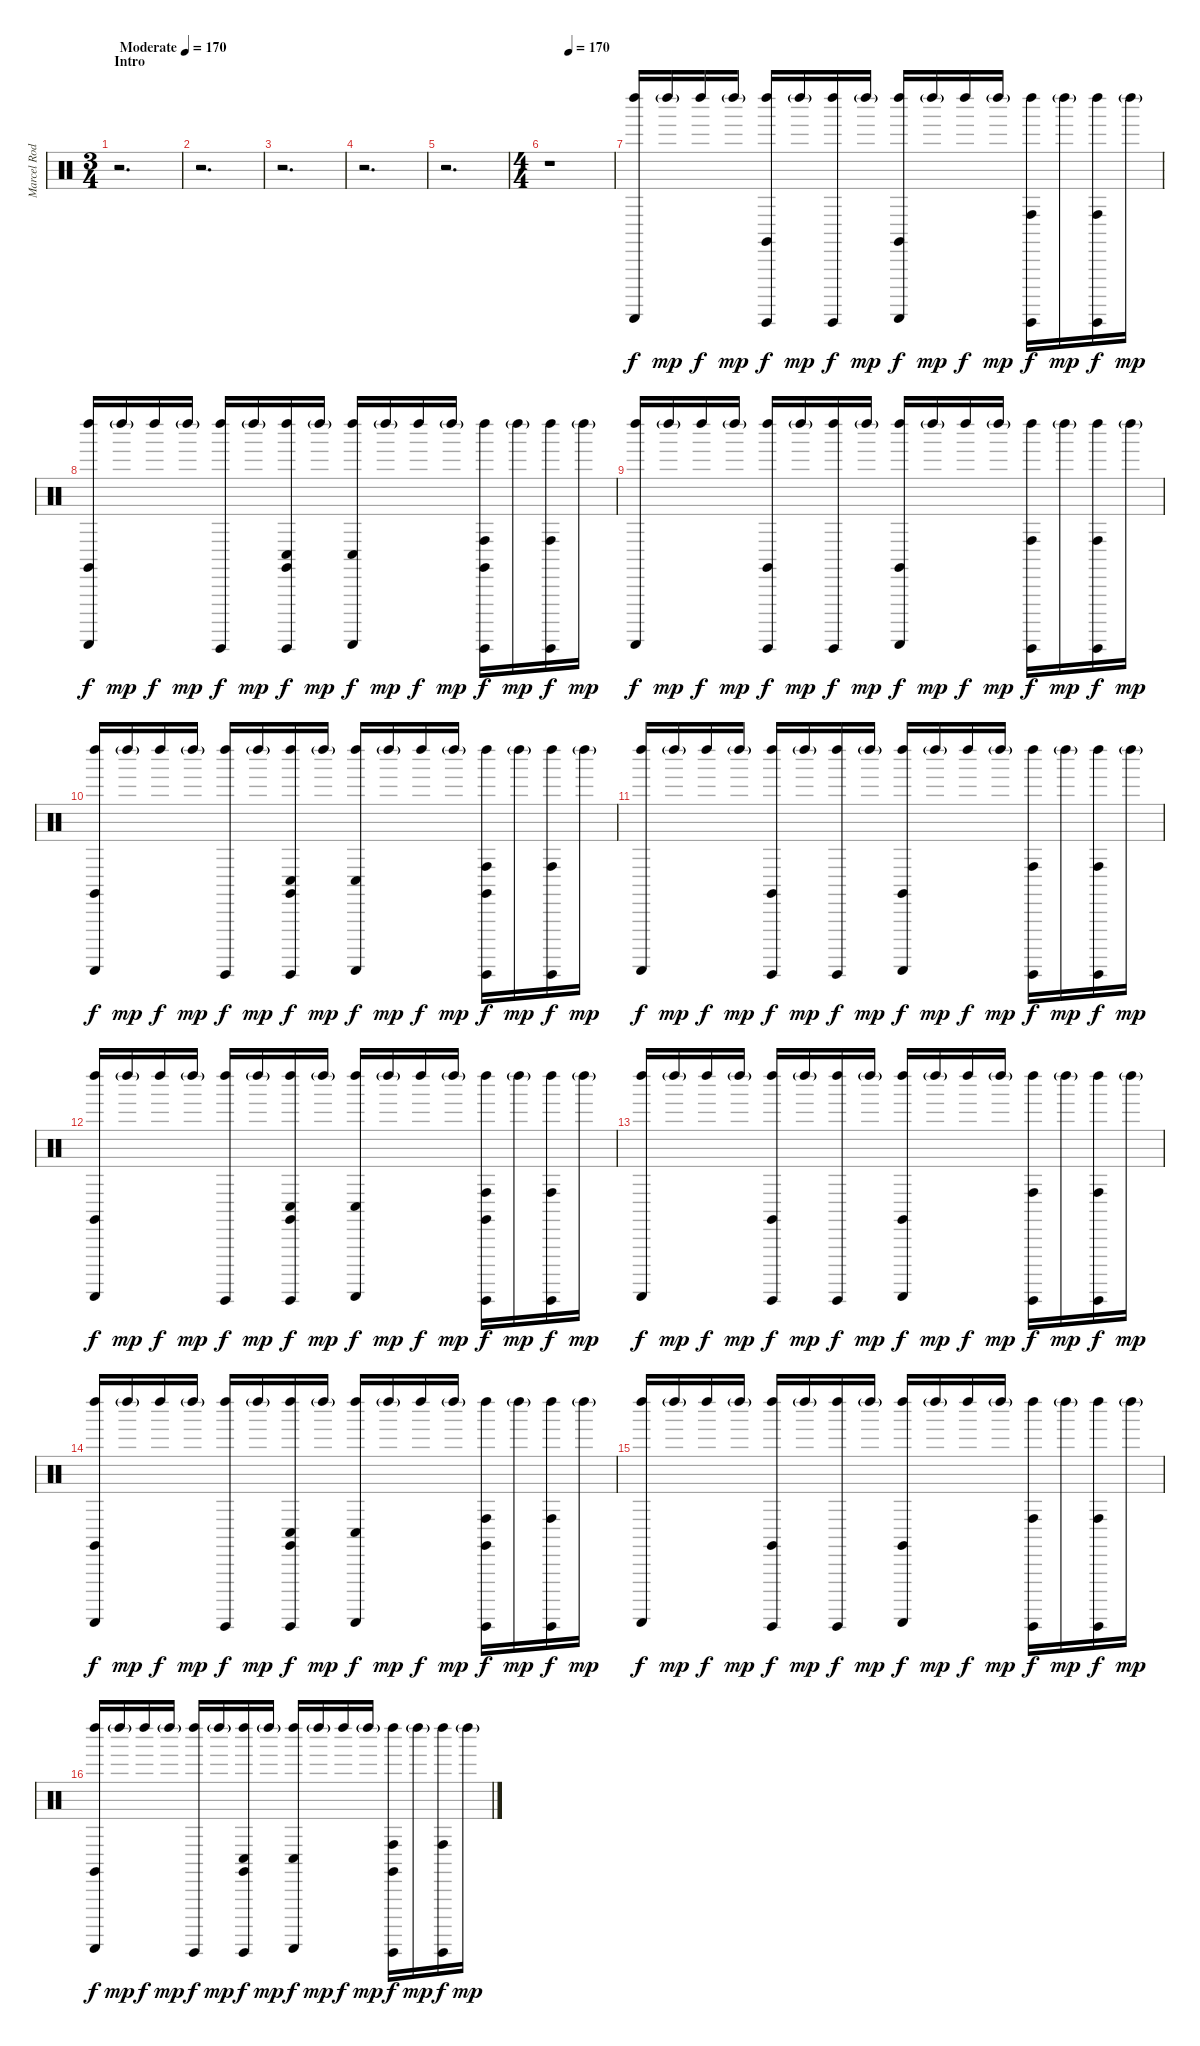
\track ("Marcel Rodriguez-Lopez/Adrian Terrazas [" "Marcel Rod") {instrument percussion}
\staff {score}
\articulation defaults
\ts (3 4)
\section ("" "Intro")
\tempo (170 "Moderate")
\tempo 100
\tempo (170 "Moderate")
\clef neutral
\ks c
r.2{d dy f} |
r.2{d} |
r.2{d} |
r.2{d} |
r.2{d} |
\ts (4 4)
\tempo (170 0.3125)
r.1 |
("Guiro (scrap-return)" "Left Maraca (hit)").16 "Left Maraca (hit)"{g}.16{dy mp} "Left Maraca (hit)".16{dy f} "Left Maraca (hit)"{g}.16{dy mp} ("Guiro (hit)" "Left Maraca (hit)" "Claves (hit)").16{dy f} "Left Maraca (hit)"{g}.16{dy mp} ("Guiro (hit)" "Left Maraca (hit)").16{dy f} "Left Maraca (hit)"{g}.16{dy mp} ("Guiro (scrap-return)" "Left Maraca (hit)" "Claves (hit)").16{dy f} "Left Maraca (hit)"{g}.16{dy mp} "Left Maraca (hit)".16{dy f} "Left Maraca (hit)"{g}.16{dy mp} ("Guiro (hit)" "Left Maraca (hit)" "Conga high (hit)").16{dy f} "Left Maraca (hit)"{g}.16{dy mp} ("Guiro (hit)" "Left Maraca (hit)" "Conga high (hit)").16{dy f} "Left Maraca (hit)"{g}.16{dy mp} |
("Guiro (scrap-return)" "Left Maraca (hit)" "Claves (hit)").16{dy f} "Left Maraca (hit)"{g}.16{dy mp} "Left Maraca (hit)".16{dy f} "Left Maraca (hit)"{g}.16{dy mp} ("Guiro (hit)" "Left Maraca (hit)").16{dy f} "Left Maraca (hit)"{g}.16{dy mp} ("Guiro (hit)" "Left Maraca (hit)" "Claves (hit)" "Conga low (hit)").16{dy f} "Left Maraca (hit)"{g}.16{dy mp} ("Guiro (scrap-return)" "Left Maraca (hit)" "Conga low (hit)").16{dy f} "Left Maraca (hit)"{g}.16{dy mp} "Left Maraca (hit)".16{dy f} "Left Maraca (hit)"{g}.16{dy mp} ("Guiro (hit)" "Left Maraca (hit)" "Claves (hit)" "Conga high (hit)").16{dy f} "Left Maraca (hit)"{g}.16{dy mp} ("Guiro (hit)" "Left Maraca (hit)" "Conga high (hit)").16{dy f} "Left Maraca (hit)"{g}.16{dy mp} |
("Guiro (scrap-return)" "Left Maraca (hit)").16{dy f} "Left Maraca (hit)"{g}.16{dy mp} "Left Maraca (hit)".16{dy f} "Left Maraca (hit)"{g}.16{dy mp} ("Guiro (hit)" "Left Maraca (hit)" "Claves (hit)").16{dy f} "Left Maraca (hit)"{g}.16{dy mp} ("Guiro (hit)" "Left Maraca (hit)").16{dy f} "Left Maraca (hit)"{g}.16{dy mp} ("Guiro (scrap-return)" "Left Maraca (hit)" "Claves (hit)").16{dy f} "Left Maraca (hit)"{g}.16{dy mp} "Left Maraca (hit)".16{dy f} "Left Maraca (hit)"{g}.16{dy mp} ("Guiro (hit)" "Left Maraca (hit)" "Conga high (hit)").16{dy f} "Left Maraca (hit)"{g}.16{dy mp} ("Guiro (hit)" "Left Maraca (hit)" "Conga high (hit)").16{dy f} "Left Maraca (hit)"{g}.16{dy mp} |
("Guiro (scrap-return)" "Left Maraca (hit)" "Claves (hit)").16{dy f} "Left Maraca (hit)"{g}.16{dy mp} "Left Maraca (hit)".16{dy f} "Left Maraca (hit)"{g}.16{dy mp} ("Guiro (hit)" "Left Maraca (hit)").16{dy f} "Left Maraca (hit)"{g}.16{dy mp} ("Guiro (hit)" "Left Maraca (hit)" "Claves (hit)" "Conga low (hit)").16{dy f} "Left Maraca (hit)"{g}.16{dy mp} ("Guiro (scrap-return)" "Left Maraca (hit)" "Conga low (hit)").16{dy f} "Left Maraca (hit)"{g}.16{dy mp} "Left Maraca (hit)".16{dy f} "Left Maraca (hit)"{g}.16{dy mp} ("Guiro (hit)" "Left Maraca (hit)" "Claves (hit)" "Conga high (hit)").16{dy f} "Left Maraca (hit)"{g}.16{dy mp} ("Guiro (hit)" "Left Maraca (hit)" "Conga high (hit)").16{dy f} "Left Maraca (hit)"{g}.16{dy mp} |
("Guiro (scrap-return)" "Left Maraca (hit)").16{dy f} "Left Maraca (hit)"{g}.16{dy mp} "Left Maraca (hit)".16{dy f} "Left Maraca (hit)"{g}.16{dy mp} ("Guiro (hit)" "Left Maraca (hit)" "Claves (hit)").16{dy f} "Left Maraca (hit)"{g}.16{dy mp} ("Guiro (hit)" "Left Maraca (hit)").16{dy f} "Left Maraca (hit)"{g}.16{dy mp} ("Guiro (scrap-return)" "Left Maraca (hit)" "Claves (hit)").16{dy f} "Left Maraca (hit)"{g}.16{dy mp} "Left Maraca (hit)".16{dy f} "Left Maraca (hit)"{g}.16{dy mp} ("Guiro (hit)" "Left Maraca (hit)" "Conga high (hit)").16{dy f} "Left Maraca (hit)"{g}.16{dy mp} ("Guiro (hit)" "Left Maraca (hit)" "Conga high (hit)").16{dy f} "Left Maraca (hit)"{g}.16{dy mp} |
("Guiro (scrap-return)" "Left Maraca (hit)" "Claves (hit)").16{dy f} "Left Maraca (hit)"{g}.16{dy mp} "Left Maraca (hit)".16{dy f} "Left Maraca (hit)"{g}.16{dy mp} ("Guiro (hit)" "Left Maraca (hit)").16{dy f} "Left Maraca (hit)"{g}.16{dy mp} ("Guiro (hit)" "Left Maraca (hit)" "Claves (hit)" "Conga low (hit)").16{dy f} "Left Maraca (hit)"{g}.16{dy mp} ("Guiro (scrap-return)" "Left Maraca (hit)" "Conga low (hit)").16{dy f} "Left Maraca (hit)"{g}.16{dy mp} "Left Maraca (hit)".16{dy f} "Left Maraca (hit)"{g}.16{dy mp} ("Guiro (hit)" "Left Maraca (hit)" "Claves (hit)" "Conga high (hit)").16{dy f} "Left Maraca (hit)"{g}.16{dy mp} ("Guiro (hit)" "Left Maraca (hit)" "Conga high (hit)").16{dy f} "Left Maraca (hit)"{g}.16{dy mp} |
("Guiro (scrap-return)" "Left Maraca (hit)").16{dy f} "Left Maraca (hit)"{g}.16{dy mp} "Left Maraca (hit)".16{dy f} "Left Maraca (hit)"{g}.16{dy mp} ("Guiro (hit)" "Left Maraca (hit)" "Claves (hit)").16{dy f} "Left Maraca (hit)"{g}.16{dy mp} ("Guiro (hit)" "Left Maraca (hit)").16{dy f} "Left Maraca (hit)"{g}.16{dy mp} ("Guiro (scrap-return)" "Left Maraca (hit)" "Claves (hit)").16{dy f} "Left Maraca (hit)"{g}.16{dy mp} "Left Maraca (hit)".16{dy f} "Left Maraca (hit)"{g}.16{dy mp} ("Guiro (hit)" "Left Maraca (hit)" "Conga high (hit)").16{dy f} "Left Maraca (hit)"{g}.16{dy mp} ("Guiro (hit)" "Left Maraca (hit)" "Conga high (hit)").16{dy f} "Left Maraca (hit)"{g}.16{dy mp} |
("Guiro (scrap-return)" "Left Maraca (hit)" "Claves (hit)").16{dy f} "Left Maraca (hit)"{g}.16{dy mp} "Left Maraca (hit)".16{dy f} "Left Maraca (hit)"{g}.16{dy mp} ("Guiro (hit)" "Left Maraca (hit)").16{dy f} "Left Maraca (hit)"{g}.16{dy mp} ("Guiro (hit)" "Left Maraca (hit)" "Claves (hit)" "Conga low (hit)").16{dy f} "Left Maraca (hit)"{g}.16{dy mp} ("Guiro (scrap-return)" "Left Maraca (hit)" "Conga low (hit)").16{dy f} "Left Maraca (hit)"{g}.16{dy mp} "Left Maraca (hit)".16{dy f} "Left Maraca (hit)"{g}.16{dy mp} ("Guiro (hit)" "Left Maraca (hit)" "Claves (hit)" "Conga high (hit)").16{dy f} "Left Maraca (hit)"{g}.16{dy mp} ("Guiro (hit)" "Left Maraca (hit)" "Conga high (hit)").16{dy f} "Left Maraca (hit)"{g}.16{dy mp} |
("Guiro (scrap-return)" "Left Maraca (hit)").16{dy f} "Left Maraca (hit)"{g}.16{dy mp} "Left Maraca (hit)".16{dy f} "Left Maraca (hit)"{g}.16{dy mp} ("Guiro (hit)" "Left Maraca (hit)" "Claves (hit)").16{dy f} "Left Maraca (hit)"{g}.16{dy mp} ("Guiro (hit)" "Left Maraca (hit)").16{dy f} "Left Maraca (hit)"{g}.16{dy mp} ("Guiro (scrap-return)" "Left Maraca (hit)" "Claves (hit)").16{dy f} "Left Maraca (hit)"{g}.16{dy mp} "Left Maraca (hit)".16{dy f} "Left Maraca (hit)"{g}.16{dy mp} ("Guiro (hit)" "Left Maraca (hit)" "Conga high (hit)").16{dy f} "Left Maraca (hit)"{g}.16{dy mp} ("Guiro (hit)" "Left Maraca (hit)" "Conga high (hit)").16{dy f} "Left Maraca (hit)"{g}.16{dy mp} |
("Guiro (scrap-return)" "Left Maraca (hit)" "Claves (hit)").16{dy f} "Left Maraca (hit)"{g}.16{dy mp} "Left Maraca (hit)".16{dy f} "Left Maraca (hit)"{g}.16{dy mp} ("Guiro (hit)" "Left Maraca (hit)").16{dy f} "Left Maraca (hit)"{g}.16{dy mp} ("Guiro (hit)" "Left Maraca (hit)" "Claves (hit)" "Conga low (hit)").16{dy f} "Left Maraca (hit)"{g}.16{dy mp} ("Guiro (scrap-return)" "Left Maraca (hit)" "Conga low (hit)").16{dy f} "Left Maraca (hit)"{g}.16{dy mp} "Left Maraca (hit)".16{dy f} "Left Maraca (hit)"{g}.16{dy mp} ("Guiro (hit)" "Left Maraca (hit)" "Claves (hit)" "Conga high (hit)").16{dy f} "Left Maraca (hit)"{g}.16{dy mp} ("Guiro (hit)" "Left Maraca (hit)" "Conga high (hit)").16{dy f} "Left Maraca (hit)"{g}.16{dy mp}
